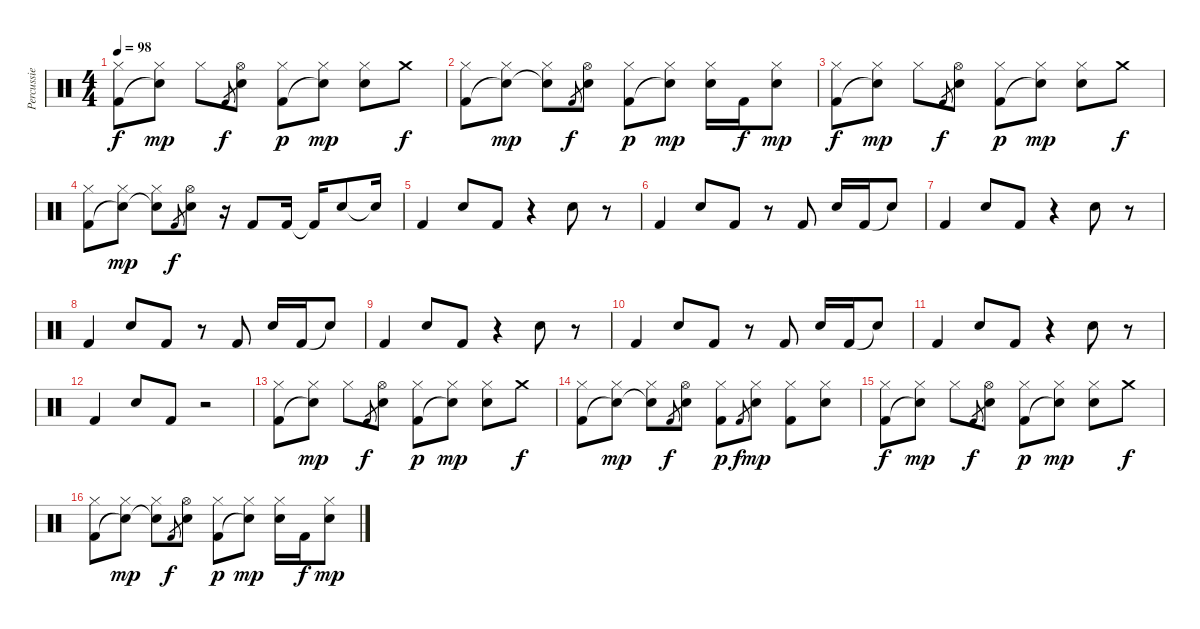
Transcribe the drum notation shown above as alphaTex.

\track ("Percussie" "Percussie") {instrument percussion}
\staff {score}
\articulation defaults
\ts (4 4)
\tempo 98
\clef neutral
\ks c
("Hi-Hat (closed)" "Kick (hit) 2").8{dy f} ("Hi-Hat (closed)" "Snare (hit)"{t}).8{dy mp} "Hi-Hat (closed)".8 "Kick (hit) 2".8{gr dy f} ("Hi-Hat (open)" "Electric Snare (hit)").8 ("Hi-Hat (closed)" "Kick (hit) 2").8{dy p} ("Hi-Hat (closed)" "Snare (hit)"{t}).8{dy mp} ("Hi-Hat (closed)" "Electric Snare (hit)").8 "Crash medium (hit)".8{dy f} |
("Hi-Hat (closed)" "Kick (hit) 2").8 ("Hi-Hat (closed)" "Snare (hit)"{t}).8{dy mp} ("Hi-Hat (closed)" "Snare (hit)"{t}).8 "Kick (hit) 2".8{gr dy f} ("Hi-Hat (open)" "Electric Snare (hit)").8 ("Hi-Hat (closed)" "Kick (hit) 2").8{dy p} ("Hi-Hat (closed)" "Snare (hit)"{t}).8{dy mp} ("Hi-Hat (closed)" "Electric Snare (hit)").16 "Kick (hit) 2".16{dy f} ("Hi-Hat (closed)" "Electric Snare (hit)").8{dy mp} |
("Hi-Hat (closed)" "Kick (hit) 2").8{dy f} ("Hi-Hat (closed)" "Snare (hit)"{t}).8{dy mp} "Hi-Hat (closed)".8 "Kick (hit) 2".8{gr dy f} ("Hi-Hat (open)" "Electric Snare (hit)").8 ("Hi-Hat (closed)" "Kick (hit) 2").8{dy p} ("Hi-Hat (closed)" "Snare (hit)"{t}).8{dy mp} ("Hi-Hat (closed)" "Electric Snare (hit)").8 "Crash medium (hit)".8{dy f} |
("Hi-Hat (closed)" "Kick (hit) 2").8 ("Hi-Hat (closed)" "Snare (hit)"{t}).8{dy mp} ("Hi-Hat (closed)" "Snare (hit)"{t}).8 "Kick (hit) 2".8{gr dy f} ("Hi-Hat (open)" "Electric Snare (hit)").8 r.16 "Kick (hit) 2".8 "Kick (hit) 2".16 "Kick (hit) 2"{t}.16 "Electric Snare (hit)".8 "Snare (hit)"{t}.16 |
"Kick (hit) 2".4 "Electric Snare (hit)".8 "Kick (hit) 2".8 r.4 "Electric Snare (hit)".8 r.8 |
"Kick (hit) 2".4 "Electric Snare (hit)".8 "Kick (hit) 2".8 r.8 "Kick (hit) 2".8 "Electric Snare (hit)".16 "Kick (hit) 2".16 "Snare (hit)"{t}.8 |
"Kick (hit) 2".4 "Electric Snare (hit)".8 "Kick (hit) 2".8 r.4 "Electric Snare (hit)".8 r.8 |
"Kick (hit) 2".4 "Electric Snare (hit)".8 "Kick (hit) 2".8 r.8 "Kick (hit) 2".8 "Electric Snare (hit)".16 "Kick (hit) 2".16 "Snare (hit)"{t}.8 |
"Kick (hit) 2".4 "Electric Snare (hit)".8 "Kick (hit) 2".8 r.4 "Electric Snare (hit)".8 r.8 |
"Kick (hit) 2".4 "Electric Snare (hit)".8 "Kick (hit) 2".8 r.8 "Kick (hit) 2".8 "Electric Snare (hit)".16 "Kick (hit) 2".16 "Snare (hit)"{t}.8 |
"Kick (hit) 2".4 "Electric Snare (hit)".8 "Kick (hit) 2".8 r.4 "Electric Snare (hit)".8 r.8 |
"Kick (hit) 2".4 "Electric Snare (hit)".8 "Kick (hit) 2".8 r.2 |
("Hi-Hat (closed)" "Kick (hit) 2").8 ("Hi-Hat (closed)" "Snare (hit)"{t}).8{dy mp} "Hi-Hat (closed)".8 "Kick (hit) 2".8{gr dy f} ("Hi-Hat (open)" "Electric Snare (hit)").8 ("Hi-Hat (closed)" "Kick (hit) 2").8{dy p} ("Hi-Hat (closed)" "Snare (hit)"{t}).8{dy mp} ("Hi-Hat (closed)" "Electric Snare (hit)").8 "Crash medium (hit)".8{dy f} |
("Hi-Hat (closed)" "Kick (hit) 2").8 ("Hi-Hat (closed)" "Snare (hit)"{t}).8{dy mp} ("Hi-Hat (closed)" "Snare (hit)"{t}).8 "Kick (hit) 2".8{gr dy f} ("Hi-Hat (open)" "Electric Snare (hit)").8 ("Hi-Hat (closed)" "Kick (hit) 2").8{dy p} "Kick (hit) 2".8{gr dy f} ("Hi-Hat (closed)" "Electric Snare (hit)").8{dy mp} ("Hi-Hat (closed)" "Kick (hit) 2").8 ("Hi-Hat (closed)" "Electric Snare (hit)").8 |
("Hi-Hat (closed)" "Kick (hit) 2").8{dy f} ("Hi-Hat (closed)" "Snare (hit)"{t}).8{dy mp} "Hi-Hat (closed)".8 "Kick (hit) 2".8{gr dy f} ("Hi-Hat (open)" "Electric Snare (hit)").8 ("Hi-Hat (closed)" "Kick (hit) 2").8{dy p} ("Hi-Hat (closed)" "Snare (hit)"{t}).8{dy mp} ("Hi-Hat (closed)" "Electric Snare (hit)").8 "Crash medium (hit)".8{dy f} |
("Hi-Hat (closed)" "Kick (hit) 2").8 ("Hi-Hat (closed)" "Snare (hit)"{t}).8{dy mp} ("Hi-Hat (closed)" "Snare (hit)"{t}).8 "Kick (hit) 2".8{gr dy f} ("Hi-Hat (open)" "Electric Snare (hit)").8 ("Hi-Hat (closed)" "Kick (hit) 2").8{dy p} ("Hi-Hat (closed)" "Snare (hit)"{t}).8{dy mp} ("Hi-Hat (closed)" "Electric Snare (hit)").16 "Kick (hit) 2".16{dy f} ("Hi-Hat (closed)" "Electric Snare (hit)").8{dy mp}
